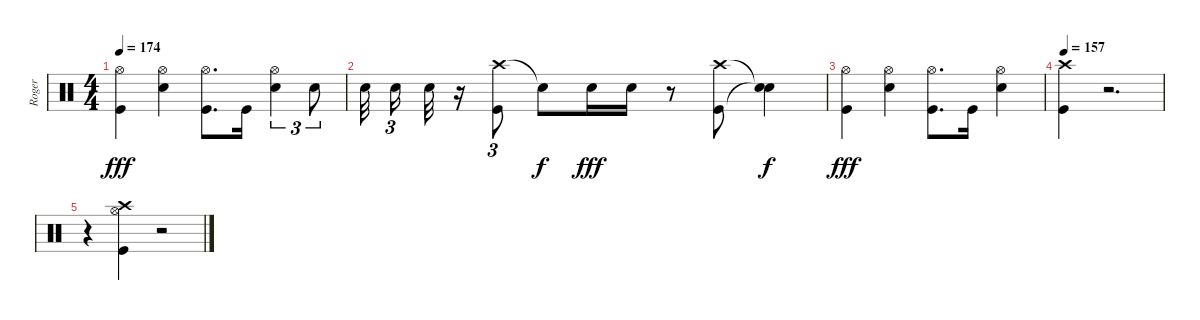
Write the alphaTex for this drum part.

\track ("Roger" "Roger") {instrument percussion}
\staff {score}
\articulation defaults
\ts (4 4)
\tempo 174
\clef neutral
\ks c
("Hi-Hat (open)" "Kick (hit)").4{dy fff} ("Hi-Hat (open)" "Snare (hit) 2").4 ("Hi-Hat (open)" "Kick (hit)").8{d} "Kick (hit)".16 ("Hi-Hat (open)" "Snare (hit) 2").4{tu (3 2)} "Snare (hit) 2".8{tu (3 2)} |
"Snare (hit) 2".32{beam splitsecondary} "Snare (hit) 2".16{tu (3 2)} "Snare (hit) 2".32 r.16 ("Crash high (hit)" "Kick (hit)").8{tu (3 2)} "Snare (hit)"{t}.8{dy f} "Snare (hit) 2".16{dy fff} "Snare (hit) 2".16 r.8 ("Crash high (hit)" "Kick (hit)").8 ("Snare (hit)"{t} "Snare (hit)"{t}).4{dy f} |
("Hi-Hat (open)" "Kick (hit)").4{dy fff} ("Hi-Hat (open)" "Snare (hit) 2").4 ("Hi-Hat (open)" "Kick (hit)").8{d} "Kick (hit)".16 ("Hi-Hat (open)" "Snare (hit) 2").4 |
\tempo 157
("Crash high (hit)" "Kick (hit)").4 r.2{d} |
r.4 ("Crash high (hit)" "Kick (hit)" "Hi-Hat (open)").4 r.2
